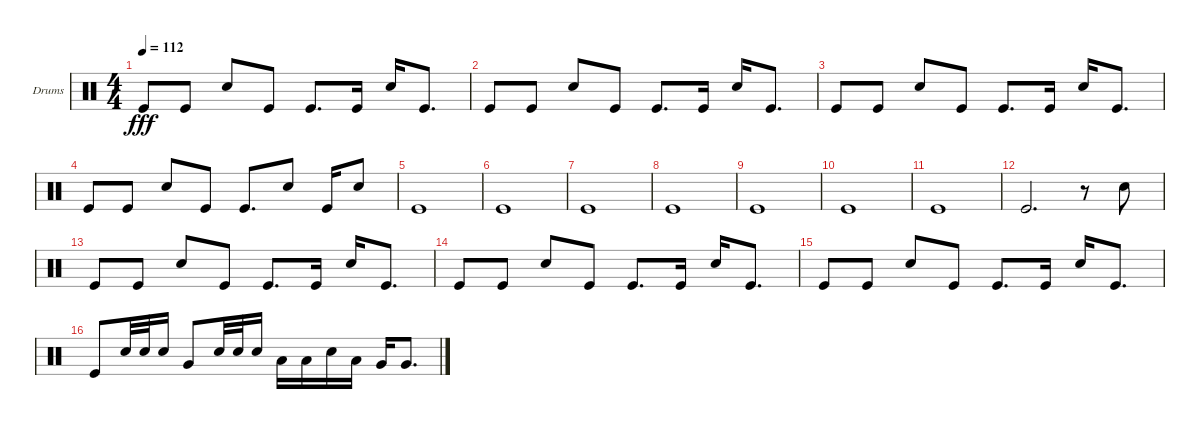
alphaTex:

\defaultSystemsLayout 4
\bracketExtendMode groupsimilarinstruments
\firstSystemTrackNameOrientation horizontal
\otherSystemsTrackNameOrientation horizontal
\track ("Helders" "Drums") {instrument percussion}
\staff {score}
\articulation defaults
\ts (4 4)
\tempo 112
\clef neutral
\ks c "Kick (hit)".8{dy fff} "Kick (hit)".8 "Snare (hit) 2".8 "Kick (hit)".8 "Kick (hit)".8{d} "Kick (hit)".16 "Snare (hit) 2".16 "Kick (hit)".8{d}
|
"Kick (hit)".8 "Kick (hit)".8 "Snare (hit) 2".8 "Kick (hit)".8 "Kick (hit)".8{d} "Kick (hit)".16 "Snare (hit) 2".16 "Kick (hit)".8{d} |
"Kick (hit)".8 "Kick (hit)".8 "Snare (hit) 2".8 "Kick (hit)".8 "Kick (hit)".8{d} "Kick (hit)".16 "Snare (hit) 2".16 "Kick (hit)".8{d} |
"Kick (hit)".8 "Kick (hit)".8 "Snare (hit) 2".8 "Kick (hit)".8 "Kick (hit)".8{d} "Snare (hit) 2".8 "Kick (hit)".16 "Snare (hit) 2".8 |
"Kick (hit)".1 |
"Kick (hit)".1 |
"Kick (hit)".1 |
"Kick (hit)".1 |
"Kick (hit)".1 |
"Kick (hit)".1 |
"Kick (hit)".1 |
"Kick (hit)".2{d} r.8 "Snare (hit) 2".8 |
"Kick (hit)".8 "Kick (hit)".8 "Snare (hit) 2".8 "Kick (hit)".8 "Kick (hit)".8{d} "Kick (hit)".16 "Snare (hit) 2".16 "Kick (hit)".8{d} |
"Kick (hit)".8 "Kick (hit)".8 "Snare (hit) 2".8 "Kick (hit)".8 "Kick (hit)".8{d} "Kick (hit)".16 "Snare (hit) 2".16 "Kick (hit)".8{d} |
"Kick (hit)".8 "Kick (hit)".8 "Snare (hit) 2".8 "Kick (hit)".8 "Kick (hit)".8{d} "Kick (hit)".16 "Snare (hit) 2".16 "Kick (hit)".8{d} |
"Kick (hit)".8 "Snare (hit) 2".32 "Snare (hit) 2".32 "Snare (hit) 2".16 "Very Low Tom (hit)".8 "Snare (hit) 2".32 "Snare (hit) 2".32 "Snare (hit) 2".16 "Low Tom (hit)".16 "Low Tom (hit)".16 "Snare (hit) 2".16 "Low Tom (hit)".16 "Very Low Tom (hit)".16 "Very Low Tom (hit)".8{d}
